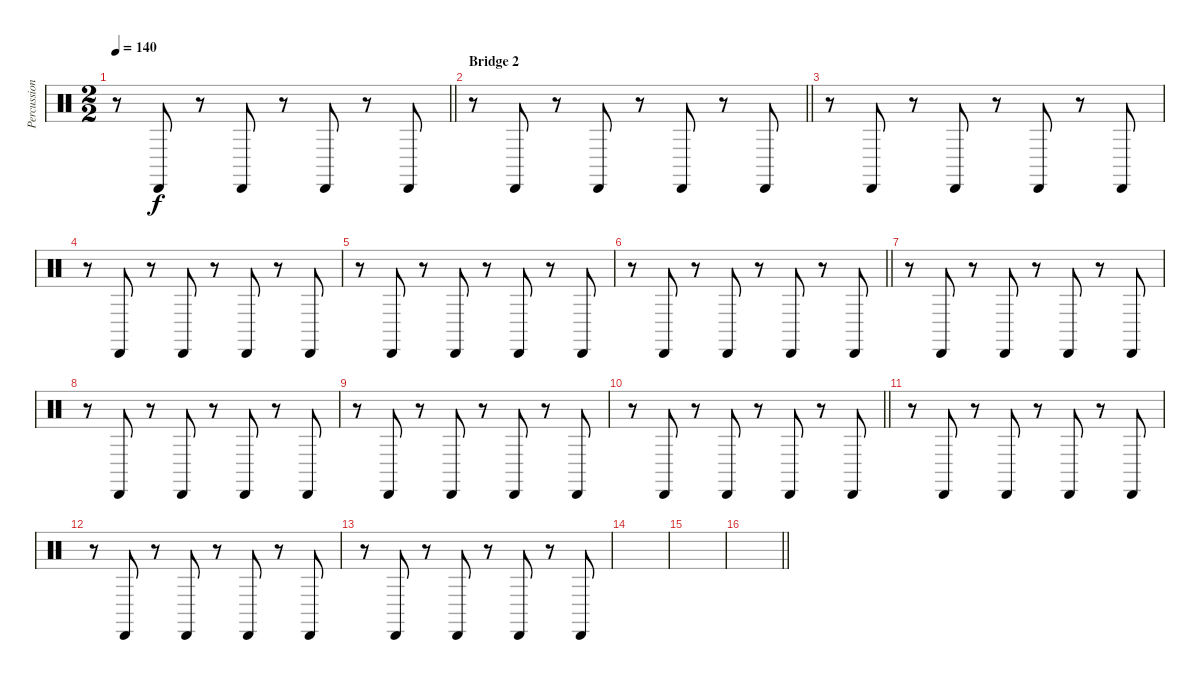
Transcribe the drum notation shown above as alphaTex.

\track ("Percussion 2" "Percussion") {instrument percussion}
\staff {score}
\articulation defaults
\ts (2 2)
\tempo 140
\clef neutral
\barLineRight lightlight
\ks c
r.8{dy f} "Cabasa (hit)".8 r.8 "Cabasa (hit)".8 r.8 "Cabasa (hit)".8 r.8 "Cabasa (hit)".8 |
\section ("" "Bridge 2")
\barLineRight lightlight
r.8 "Cabasa (hit)".8 r.8 "Cabasa (hit)".8 r.8 "Cabasa (hit)".8 r.8 "Cabasa (hit)".8 |
r.8 "Cabasa (hit)".8 r.8 "Cabasa (hit)".8 r.8 "Cabasa (hit)".8 r.8 "Cabasa (hit)".8 |
r.8 "Cabasa (hit)".8 r.8 "Cabasa (hit)".8 r.8 "Cabasa (hit)".8 r.8 "Cabasa (hit)".8 |
r.8 "Cabasa (hit)".8 r.8 "Cabasa (hit)".8 r.8 "Cabasa (hit)".8 r.8 "Cabasa (hit)".8 |
\barLineRight lightlight
r.8 "Cabasa (hit)".8 r.8 "Cabasa (hit)".8 r.8 "Cabasa (hit)".8 r.8 "Cabasa (hit)".8 |
r.8 "Cabasa (hit)".8 r.8 "Cabasa (hit)".8 r.8 "Cabasa (hit)".8 r.8 "Cabasa (hit)".8 |
r.8 "Cabasa (hit)".8 r.8 "Cabasa (hit)".8 r.8 "Cabasa (hit)".8 r.8 "Cabasa (hit)".8 |
r.8 "Cabasa (hit)".8 r.8 "Cabasa (hit)".8 r.8 "Cabasa (hit)".8 r.8 "Cabasa (hit)".8 |
\barLineRight lightlight
r.8 "Cabasa (hit)".8 r.8 "Cabasa (hit)".8 r.8 "Cabasa (hit)".8 r.8 "Cabasa (hit)".8 |
r.8 "Cabasa (hit)".8 r.8 "Cabasa (hit)".8 r.8 "Cabasa (hit)".8 r.8 "Cabasa (hit)".8 |
r.8 "Cabasa (hit)".8 r.8 "Cabasa (hit)".8 r.8 "Cabasa (hit)".8 r.8 "Cabasa (hit)".8 |
r.8 "Cabasa (hit)".8 r.8 "Cabasa (hit)".8 r.8 "Cabasa (hit)".8 r.8 "Cabasa (hit)".8 |
|
|
\barLineRight lightlight
